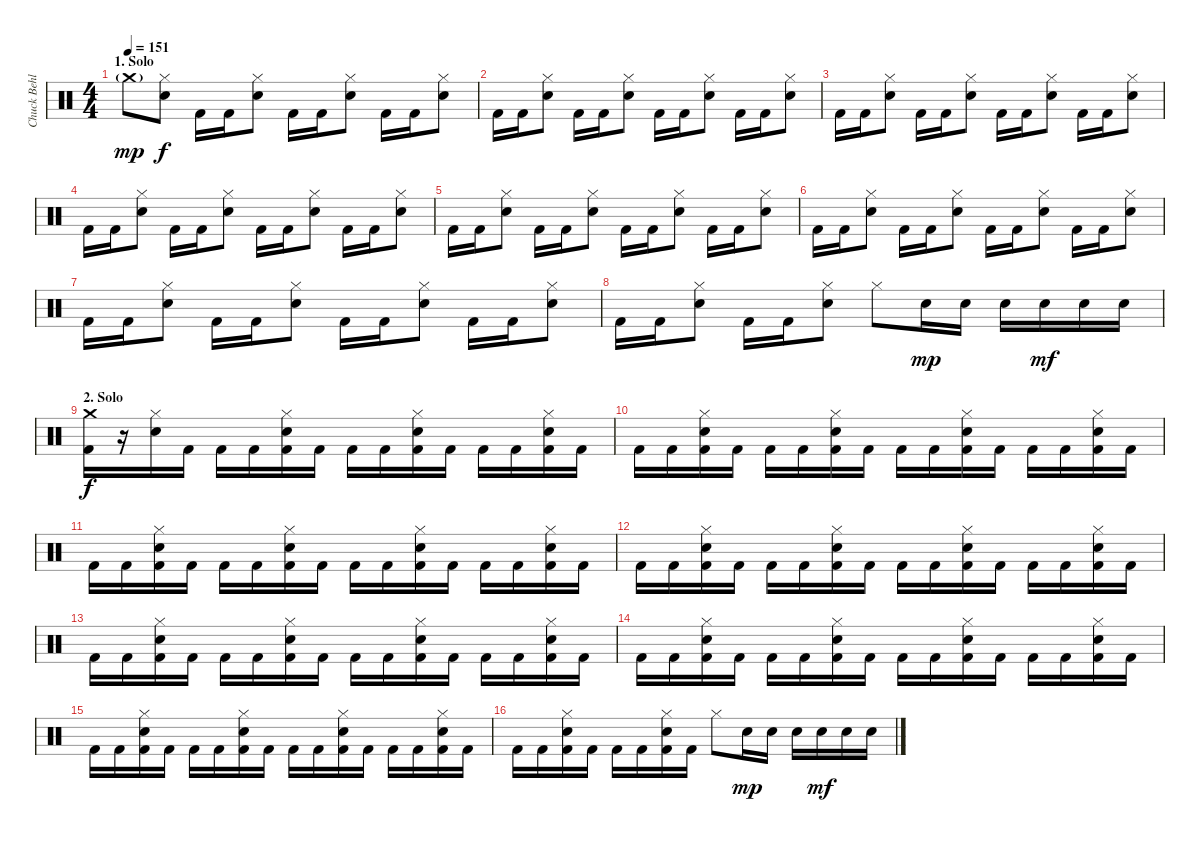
\track ("Chuck Behler" "Chuck Behl") {instrument percussion}
\staff {score}
\articulation defaults
\ts (4 4)
\section ("" "1. Solo")
\tempo 151
\clef neutral
\ks c "Crash medium (hit)"{g}.8{dy mp}
("Hi-Hat (closed)" "Electric Snare (hit)").8{dy f} "Kick (hit) 2".16 "Kick (hit) 2".16 ("Hi-Hat (closed)" "Electric Snare (hit)").8 "Kick (hit) 2".16 "Kick (hit) 2".16 ("Hi-Hat (closed)" "Electric Snare (hit)").8 "Kick (hit) 2".16 "Kick (hit) 2".16 ("Hi-Hat (closed)" "Electric Snare (hit)").8 |
"Kick (hit) 2".16 "Kick (hit) 2".16 ("Hi-Hat (closed)" "Electric Snare (hit)").8 "Kick (hit) 2".16 "Kick (hit) 2".16 ("Hi-Hat (closed)" "Electric Snare (hit)").8 "Kick (hit) 2".16 "Kick (hit) 2".16 ("Hi-Hat (closed)" "Electric Snare (hit)").8 "Kick (hit) 2".16 "Kick (hit) 2".16 ("Hi-Hat (closed)" "Electric Snare (hit)").8 |
"Kick (hit) 2".16 "Kick (hit) 2".16 ("Hi-Hat (closed)" "Electric Snare (hit)").8 "Kick (hit) 2".16 "Kick (hit) 2".16 ("Hi-Hat (closed)" "Electric Snare (hit)").8 "Kick (hit) 2".16 "Kick (hit) 2".16 ("Hi-Hat (closed)" "Electric Snare (hit)").8 "Kick (hit) 2".16 "Kick (hit) 2".16 ("Hi-Hat (closed)" "Electric Snare (hit)").8 |
"Kick (hit) 2".16 "Kick (hit) 2".16 ("Hi-Hat (closed)" "Electric Snare (hit)").8 "Kick (hit) 2".16 "Kick (hit) 2".16 ("Hi-Hat (closed)" "Electric Snare (hit)").8 "Kick (hit) 2".16 "Kick (hit) 2".16 ("Hi-Hat (closed)" "Electric Snare (hit)").8 "Kick (hit) 2".16 "Kick (hit) 2".16 ("Hi-Hat (closed)" "Electric Snare (hit)").8 |
"Kick (hit) 2".16 "Kick (hit) 2".16 ("Hi-Hat (closed)" "Electric Snare (hit)").8 "Kick (hit) 2".16 "Kick (hit) 2".16 ("Hi-Hat (closed)" "Electric Snare (hit)").8 "Kick (hit) 2".16 "Kick (hit) 2".16 ("Hi-Hat (closed)" "Electric Snare (hit)").8 "Kick (hit) 2".16 "Kick (hit) 2".16 ("Hi-Hat (closed)" "Electric Snare (hit)").8 |
"Kick (hit) 2".16 "Kick (hit) 2".16 ("Hi-Hat (closed)" "Electric Snare (hit)").8 "Kick (hit) 2".16 "Kick (hit) 2".16 ("Hi-Hat (closed)" "Electric Snare (hit)").8 "Kick (hit) 2".16 "Kick (hit) 2".16 ("Hi-Hat (closed)" "Electric Snare (hit)").8 "Kick (hit) 2".16 "Kick (hit) 2".16 ("Hi-Hat (closed)" "Electric Snare (hit)").8 |
"Kick (hit) 2".16 "Kick (hit) 2".16 ("Hi-Hat (closed)" "Electric Snare (hit)").8 "Kick (hit) 2".16 "Kick (hit) 2".16 ("Hi-Hat (closed)" "Electric Snare (hit)").8 "Kick (hit) 2".16 "Kick (hit) 2".16 ("Hi-Hat (closed)" "Electric Snare (hit)").8 "Kick (hit) 2".16 "Kick (hit) 2".16 ("Hi-Hat (closed)" "Electric Snare (hit)").8 |
"Kick (hit) 2".16 "Kick (hit) 2".16 ("Hi-Hat (closed)" "Electric Snare (hit)").8 "Kick (hit) 2".16 "Kick (hit) 2".16 ("Hi-Hat (closed)" "Electric Snare (hit)").8 "Hi-Hat (closed)".8 "Electric Snare (hit)".16{dy mp} "Electric Snare (hit)".16 "Electric Snare (hit)".16 "Electric Snare (hit)".16{dy mf} "Electric Snare (hit)".16 "Electric Snare (hit)".16 |
\section ("" "2. Solo")
("Crash medium (hit)" "Kick (hit) 2").16{dy f} r.16 ("Hi-Hat (closed)" "Electric Snare (hit)").16 "Kick (hit) 2".16 "Kick (hit) 2".16 "Kick (hit) 2".16 ("Hi-Hat (closed)" "Electric Snare (hit)" "Kick (hit) 2").16 "Kick (hit) 2".16 "Kick (hit) 2".16 "Kick (hit) 2".16 ("Hi-Hat (closed)" "Electric Snare (hit)" "Kick (hit) 2").16 "Kick (hit) 2".16 "Kick (hit) 2".16 "Kick (hit) 2".16 ("Hi-Hat (closed)" "Electric Snare (hit)" "Kick (hit) 2").16 "Kick (hit) 2".16 |
"Kick (hit) 2".16 "Kick (hit) 2".16 ("Hi-Hat (closed)" "Electric Snare (hit)" "Kick (hit) 2").16 "Kick (hit) 2".16 "Kick (hit) 2".16 "Kick (hit) 2".16 ("Hi-Hat (closed)" "Electric Snare (hit)" "Kick (hit) 2").16 "Kick (hit) 2".16 "Kick (hit) 2".16 "Kick (hit) 2".16 ("Hi-Hat (closed)" "Electric Snare (hit)" "Kick (hit) 2").16 "Kick (hit) 2".16 "Kick (hit) 2".16 "Kick (hit) 2".16 ("Hi-Hat (closed)" "Electric Snare (hit)" "Kick (hit) 2").16 "Kick (hit) 2".16 |
"Kick (hit) 2".16 "Kick (hit) 2".16 ("Hi-Hat (closed)" "Electric Snare (hit)" "Kick (hit) 2").16 "Kick (hit) 2".16 "Kick (hit) 2".16 "Kick (hit) 2".16 ("Hi-Hat (closed)" "Electric Snare (hit)" "Kick (hit) 2").16 "Kick (hit) 2".16 "Kick (hit) 2".16 "Kick (hit) 2".16 ("Hi-Hat (closed)" "Electric Snare (hit)" "Kick (hit) 2").16 "Kick (hit) 2".16 "Kick (hit) 2".16 "Kick (hit) 2".16 ("Hi-Hat (closed)" "Electric Snare (hit)" "Kick (hit) 2").16 "Kick (hit) 2".16 |
"Kick (hit) 2".16 "Kick (hit) 2".16 ("Hi-Hat (closed)" "Electric Snare (hit)" "Kick (hit) 2").16 "Kick (hit) 2".16 "Kick (hit) 2".16 "Kick (hit) 2".16 ("Hi-Hat (closed)" "Electric Snare (hit)" "Kick (hit) 2").16 "Kick (hit) 2".16 "Kick (hit) 2".16 "Kick (hit) 2".16 ("Hi-Hat (closed)" "Electric Snare (hit)" "Kick (hit) 2").16 "Kick (hit) 2".16 "Kick (hit) 2".16 "Kick (hit) 2".16 ("Hi-Hat (closed)" "Electric Snare (hit)" "Kick (hit) 2").16 "Kick (hit) 2".16 |
"Kick (hit) 2".16 "Kick (hit) 2".16 ("Hi-Hat (closed)" "Electric Snare (hit)" "Kick (hit) 2").16 "Kick (hit) 2".16 "Kick (hit) 2".16 "Kick (hit) 2".16 ("Hi-Hat (closed)" "Electric Snare (hit)" "Kick (hit) 2").16 "Kick (hit) 2".16 "Kick (hit) 2".16 "Kick (hit) 2".16 ("Hi-Hat (closed)" "Electric Snare (hit)" "Kick (hit) 2").16 "Kick (hit) 2".16 "Kick (hit) 2".16 "Kick (hit) 2".16 ("Hi-Hat (closed)" "Electric Snare (hit)" "Kick (hit) 2").16 "Kick (hit) 2".16 |
"Kick (hit) 2".16 "Kick (hit) 2".16 ("Hi-Hat (closed)" "Electric Snare (hit)" "Kick (hit) 2").16 "Kick (hit) 2".16 "Kick (hit) 2".16 "Kick (hit) 2".16 ("Hi-Hat (closed)" "Electric Snare (hit)" "Kick (hit) 2").16 "Kick (hit) 2".16 "Kick (hit) 2".16 "Kick (hit) 2".16 ("Hi-Hat (closed)" "Electric Snare (hit)" "Kick (hit) 2").16 "Kick (hit) 2".16 "Kick (hit) 2".16 "Kick (hit) 2".16 ("Hi-Hat (closed)" "Electric Snare (hit)" "Kick (hit) 2").16 "Kick (hit) 2".16 |
"Kick (hit) 2".16 "Kick (hit) 2".16 ("Hi-Hat (closed)" "Electric Snare (hit)" "Kick (hit) 2").16 "Kick (hit) 2".16 "Kick (hit) 2".16 "Kick (hit) 2".16 ("Hi-Hat (closed)" "Electric Snare (hit)" "Kick (hit) 2").16 "Kick (hit) 2".16 "Kick (hit) 2".16 "Kick (hit) 2".16 ("Hi-Hat (closed)" "Electric Snare (hit)" "Kick (hit) 2").16 "Kick (hit) 2".16 "Kick (hit) 2".16 "Kick (hit) 2".16 ("Hi-Hat (closed)" "Electric Snare (hit)" "Kick (hit) 2").16 "Kick (hit) 2".16 |
"Kick (hit) 2".16 "Kick (hit) 2".16 ("Hi-Hat (closed)" "Electric Snare (hit)" "Kick (hit) 2").16 "Kick (hit) 2".16 "Kick (hit) 2".16 "Kick (hit) 2".16 ("Hi-Hat (closed)" "Electric Snare (hit)" "Kick (hit) 2").16 "Kick (hit) 2".16 "Hi-Hat (closed)".8 "Electric Snare (hit)".16{dy mp} "Electric Snare (hit)".16 "Electric Snare (hit)".16 "Electric Snare (hit)".16{dy mf} "Electric Snare (hit)".16 "Electric Snare (hit)".16
